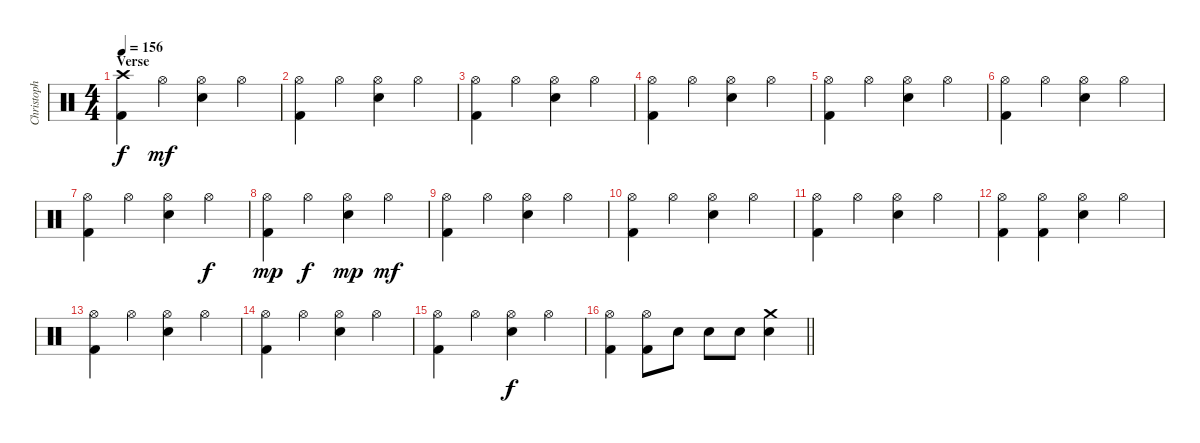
\track ("Christoph Schneider" "Christoph ") {instrument percussion}
\staff {score}
\articulation defaults
\ts (4 4)
\section ("" "Verse")
\tempo 156
\clef neutral
\ks c
("Crash high (hit)" "Kick (hit) 2").4{dy f} "Hi-Hat (open)".4{dy mf} ("Hi-Hat (open)" "Snare (hit) 2").4 "Hi-Hat (open)".4 |
("Hi-Hat (open)" "Kick (hit) 2").4 "Hi-Hat (open)".4 ("Hi-Hat (open)" "Snare (hit) 2").4 "Hi-Hat (open)".4 |
("Hi-Hat (open)" "Kick (hit) 2").4 "Hi-Hat (open)".4 ("Hi-Hat (open)" "Snare (hit) 2").4 "Hi-Hat (open)".4 |
("Hi-Hat (open)" "Kick (hit) 2").4 "Hi-Hat (open)".4 ("Hi-Hat (open)" "Snare (hit) 2").4 "Hi-Hat (open)".4 |
("Hi-Hat (open)" "Kick (hit) 2").4 "Hi-Hat (open)".4 ("Hi-Hat (open)" "Snare (hit) 2").4 "Hi-Hat (open)".4 |
("Hi-Hat (open)" "Kick (hit) 2").4 "Hi-Hat (open)".4 ("Hi-Hat (open)" "Snare (hit) 2").4 "Hi-Hat (open)".4 |
("Hi-Hat (open)" "Kick (hit) 2").4 "Hi-Hat (open)".4 ("Hi-Hat (open)" "Snare (hit) 2").4 "Hi-Hat (open)".4{dy f} |
("Hi-Hat (open)" "Kick (hit) 2").4{dy mp} "Hi-Hat (open)".4{dy f} ("Hi-Hat (open)" "Snare (hit) 2").4{dy mp} "Hi-Hat (open)".4{dy mf} |
("Hi-Hat (open)" "Kick (hit) 2").4 "Hi-Hat (open)".4 ("Hi-Hat (open)" "Snare (hit) 2").4 "Hi-Hat (open)".4 |
("Hi-Hat (open)" "Kick (hit) 2").4 "Hi-Hat (open)".4 ("Hi-Hat (open)" "Snare (hit) 2").4 "Hi-Hat (open)".4 |
("Hi-Hat (open)" "Kick (hit) 2").4 "Hi-Hat (open)".4 ("Hi-Hat (open)" "Snare (hit) 2").4 "Hi-Hat (open)".4 |
("Hi-Hat (open)" "Kick (hit) 2").4 ("Hi-Hat (open)" "Kick (hit) 2").4 ("Hi-Hat (open)" "Snare (hit) 2").4 "Hi-Hat (open)".4 |
("Hi-Hat (open)" "Kick (hit) 2").4 "Hi-Hat (open)".4 ("Hi-Hat (open)" "Snare (hit) 2").4 "Hi-Hat (open)".4 |
("Hi-Hat (open)" "Kick (hit) 2").4 "Hi-Hat (open)".4 ("Hi-Hat (open)" "Snare (hit) 2").4 "Hi-Hat (open)".4 |
("Hi-Hat (open)" "Kick (hit) 2").4 "Hi-Hat (open)".4 ("Hi-Hat (open)" "Snare (hit) 2").4{dy f} "Hi-Hat (open)".4 |
\barLineRight lightlight
("Hi-Hat (open)" "Kick (hit) 2").4 ("Hi-Hat (open)" "Kick (hit) 2").8 "Snare (hit) 2".8 "Snare (hit) 2".8 "Snare (hit) 2".8 ("Crash medium (hit)" "Snare (hit) 2").4
